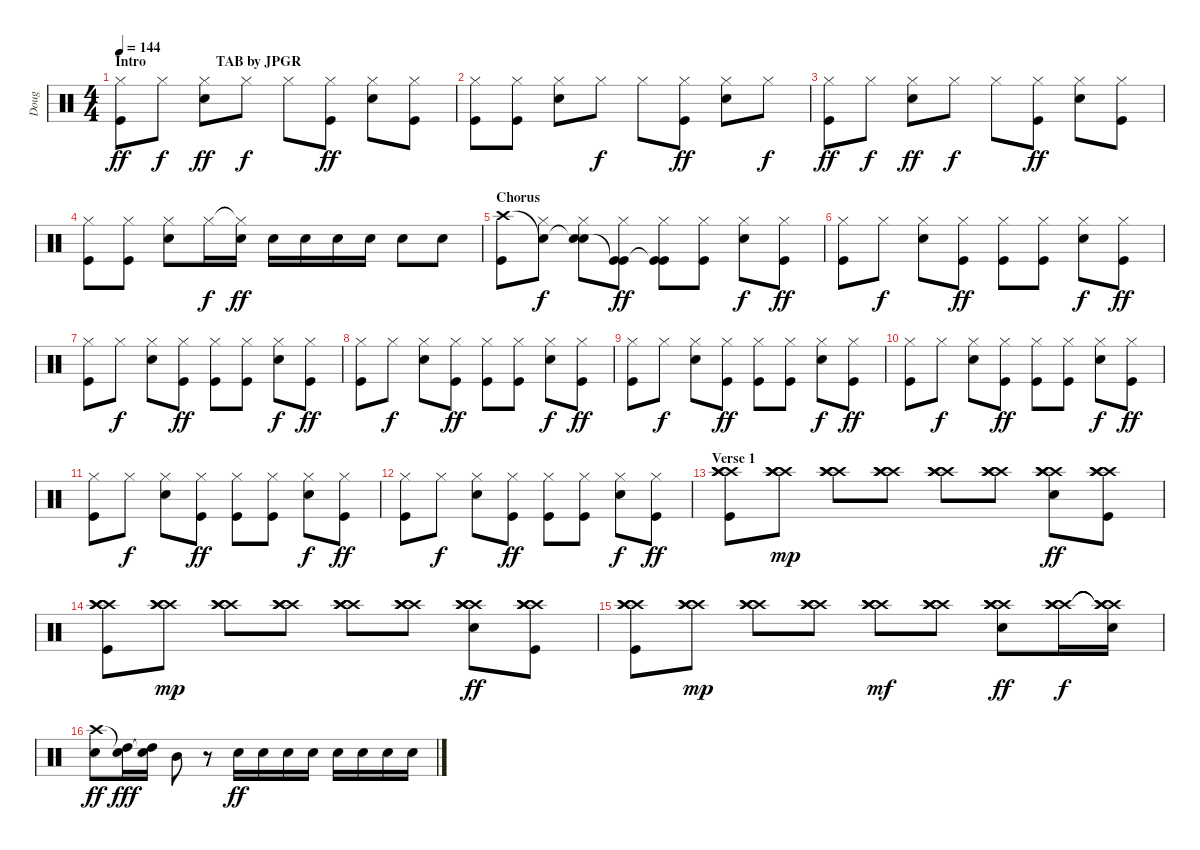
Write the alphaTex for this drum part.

\track ("Doug" "Doug") {instrument percussion}
\staff {score}
\articulation defaults
\ts (4 4)
\section ("" "Intro                    TAB by JPGR")
\tempo 144
\clef neutral
\ks c
("Hi-Hat (closed)" "Kick (hit)").8{dy ff} "Hi-Hat (closed)".8{dy f} ("Hi-Hat (closed)" "Electric Snare (hit)").8{dy ff} "Hi-Hat (closed)".8{dy f} "Hi-Hat (closed)".8 ("Hi-Hat (closed)" "Kick (hit)").8{dy ff} ("Hi-Hat (closed)" "Electric Snare (hit)").8 ("Hi-Hat (closed)" "Kick (hit)").8 |
("Hi-Hat (closed)" "Kick (hit)").8 ("Hi-Hat (closed)" "Kick (hit)").8 ("Hi-Hat (closed)" "Electric Snare (hit)").8 "Hi-Hat (closed)".8{dy f} "Hi-Hat (closed)".8 ("Hi-Hat (closed)" "Kick (hit)").8{dy ff} ("Hi-Hat (closed)" "Electric Snare (hit)").8 "Hi-Hat (closed)".8{dy f} |
("Hi-Hat (closed)" "Kick (hit)").8{dy ff} "Hi-Hat (closed)".8{dy f} ("Hi-Hat (closed)" "Electric Snare (hit)").8{dy ff} "Hi-Hat (closed)".8{dy f} "Hi-Hat (closed)".8 ("Hi-Hat (closed)" "Kick (hit)").8{dy ff} ("Hi-Hat (closed)" "Electric Snare (hit)").8 ("Hi-Hat (closed)" "Kick (hit)").8 |
("Hi-Hat (closed)" "Kick (hit)").8 ("Hi-Hat (closed)" "Kick (hit)").8 ("Hi-Hat (closed)" "Electric Snare (hit)").8 "Hi-Hat (closed)".16{dy f} ("Hi-Hat (closed)"{t} "Electric Snare (hit)").16{dy ff} "Electric Snare (hit)".16 "Electric Snare (hit)".16 "Electric Snare (hit)".16 "Electric Snare (hit)".16 "Electric Snare (hit)".8 "Electric Snare (hit)".8 |
\section ("" "Chorus")
("Crash high (hit)" "Kick (hit)").8 ("Snare (hit)"{t} "Hi-Hat (closed)").8{dy f} ("Electric Snare (hit)"{t} "Hi-Hat (closed)" "Electric Snare (hit)").8 ("Kick (hit)"{t} "Hi-Hat (closed)" "Kick (hit)").8{dy ff} ("Kick (hit)"{t} "Hi-Hat (closed)" "Kick (hit)").8 ("Hi-Hat (closed)" "Kick (hit)").8 ("Hi-Hat (closed)" "Electric Snare (hit)").8{dy f} ("Hi-Hat (closed)" "Kick (hit)").8{dy ff} |
("Hi-Hat (closed)" "Kick (hit)").8 "Hi-Hat (closed)".8{dy f} ("Hi-Hat (closed)" "Electric Snare (hit)").8 ("Hi-Hat (closed)" "Kick (hit)").8{dy ff} ("Hi-Hat (closed)" "Kick (hit)").8 ("Hi-Hat (closed)" "Kick (hit)").8 ("Hi-Hat (closed)" "Electric Snare (hit)").8{dy f} ("Hi-Hat (closed)" "Kick (hit)").8{dy ff} |
("Hi-Hat (closed)" "Kick (hit)").8 "Hi-Hat (closed)".8{dy f} ("Hi-Hat (closed)" "Electric Snare (hit)").8 ("Hi-Hat (closed)" "Kick (hit)").8{dy ff} ("Hi-Hat (closed)" "Kick (hit)").8 ("Hi-Hat (closed)" "Kick (hit)").8 ("Hi-Hat (closed)" "Electric Snare (hit)").8{dy f} ("Hi-Hat (closed)" "Kick (hit)").8{dy ff} |
("Hi-Hat (closed)" "Kick (hit)").8 "Hi-Hat (closed)".8{dy f} ("Hi-Hat (closed)" "Electric Snare (hit)").8 ("Hi-Hat (closed)" "Kick (hit)").8{dy ff} ("Hi-Hat (closed)" "Kick (hit)").8 ("Hi-Hat (closed)" "Kick (hit)").8 ("Hi-Hat (closed)" "Electric Snare (hit)").8{dy f} ("Hi-Hat (closed)" "Kick (hit)").8{dy ff} |
("Hi-Hat (closed)" "Kick (hit)").8 "Hi-Hat (closed)".8{dy f} ("Hi-Hat (closed)" "Electric Snare (hit)").8 ("Hi-Hat (closed)" "Kick (hit)").8{dy ff} ("Hi-Hat (closed)" "Kick (hit)").8 ("Hi-Hat (closed)" "Kick (hit)").8 ("Hi-Hat (closed)" "Electric Snare (hit)").8{dy f} ("Hi-Hat (closed)" "Kick (hit)").8{dy ff} |
("Hi-Hat (closed)" "Kick (hit)").8 "Hi-Hat (closed)".8{dy f} ("Hi-Hat (closed)" "Electric Snare (hit)").8 ("Hi-Hat (closed)" "Kick (hit)").8{dy ff} ("Hi-Hat (closed)" "Kick (hit)").8 ("Hi-Hat (closed)" "Kick (hit)").8 ("Hi-Hat (closed)" "Electric Snare (hit)").8{dy f} ("Hi-Hat (closed)" "Kick (hit)").8{dy ff} |
("Hi-Hat (closed)" "Kick (hit)").8 "Hi-Hat (closed)".8{dy f} ("Hi-Hat (closed)" "Electric Snare (hit)").8 ("Hi-Hat (closed)" "Kick (hit)").8{dy ff} ("Hi-Hat (closed)" "Kick (hit)").8 ("Hi-Hat (closed)" "Kick (hit)").8 ("Hi-Hat (closed)" "Electric Snare (hit)").8{dy f} ("Hi-Hat (closed)" "Kick (hit)").8{dy ff} |
("Hi-Hat (closed)" "Kick (hit)").8 "Hi-Hat (closed)".8{dy f} ("Hi-Hat (closed)" "Electric Snare (hit)").8 ("Hi-Hat (closed)" "Kick (hit)").8{dy ff} ("Hi-Hat (closed)" "Kick (hit)").8 ("Hi-Hat (closed)" "Kick (hit)").8 ("Hi-Hat (closed)" "Electric Snare (hit)").8{dy f} ("Hi-Hat (closed)" "Kick (hit)").8{dy ff} |
\section ("" "Verse 1")
("Crash high (hit)" "Crash high (hit)" "Crash high (hit)" "Crash high (hit)" "Kick (hit)").8 ("Crash high (hit)" "Crash high (hit)" "Crash high (hit)" "Crash high (hit)").8{dy mp} ("Crash high (hit)" "Crash high (hit)" "Crash high (hit)" "Crash high (hit)").8 ("Crash high (hit)" "Crash high (hit)" "Crash high (hit)" "Crash high (hit)").8 ("Crash high (hit)" "Crash high (hit)" "Crash high (hit)" "Crash high (hit)").8 ("Crash high (hit)" "Crash high (hit)" "Crash high (hit)" "Crash high (hit)").8 ("Crash high (hit)" "Crash high (hit)" "Crash high (hit)" "Crash high (hit)" "Electric Snare (hit)").8{dy ff} ("Crash high (hit)" "Crash high (hit)" "Crash high (hit)" "Crash high (hit)" "Kick (hit)").8 |
("Crash high (hit)" "Crash high (hit)" "Crash high (hit)" "Crash high (hit)" "Kick (hit)").8 ("Crash high (hit)" "Crash high (hit)" "Crash high (hit)" "Crash high (hit)").8{dy mp} ("Crash high (hit)" "Crash high (hit)" "Crash high (hit)" "Crash high (hit)").8 ("Crash high (hit)" "Crash high (hit)" "Crash high (hit)" "Crash high (hit)").8 ("Crash high (hit)" "Crash high (hit)" "Crash high (hit)" "Crash high (hit)").8 ("Crash high (hit)" "Crash high (hit)" "Crash high (hit)" "Crash high (hit)").8 ("Crash high (hit)" "Crash high (hit)" "Crash high (hit)" "Crash high (hit)" "Electric Snare (hit)").8{dy ff} ("Crash high (hit)" "Crash high (hit)" "Crash high (hit)" "Crash high (hit)" "Kick (hit)").8 |
("Crash high (hit)" "Crash high (hit)" "Crash high (hit)" "Crash high (hit)" "Kick (hit)").8 ("Crash high (hit)" "Crash high (hit)" "Crash high (hit)" "Crash high (hit)").8{dy mp} ("Crash high (hit)" "Crash high (hit)" "Crash high (hit)" "Crash high (hit)").8 ("Crash high (hit)" "Crash high (hit)" "Crash high (hit)" "Crash high (hit)").8 ("Crash high (hit)" "Crash high (hit)" "Crash high (hit)" "Crash high (hit)").8{dy mf} ("Crash high (hit)" "Crash high (hit)" "Crash high (hit)" "Crash high (hit)").8 ("Crash high (hit)" "Crash high (hit)" "Crash high (hit)" "Crash high (hit)" "Electric Snare (hit)").8{dy ff} ("Crash high (hit)" "Crash high (hit)" "Crash high (hit)" "Crash high (hit)").16{dy f} ("Crash high (hit)"{t} "Crash high (hit)"{t} "Crash high (hit)"{t} "Crash high (hit)"{t} "Electric Snare (hit)").16 |
("Crash high (hit)" "Electric Snare (hit)").8{dy ff} ("Snare (hit)"{t} "High Tom (hit)").16{dy fff} ("Snare (hit)"{t} "High Tom (hit)").16 "Mid Tom (hit)".8 r.8 "Electric Snare (hit)".16{dy ff} "Electric Snare (hit)".16 "Electric Snare (hit)".16 "Electric Snare (hit)".16 "Electric Snare (hit)".16 "Electric Snare (hit)".16 "Electric Snare (hit)".16 "Electric Snare (hit)".16
